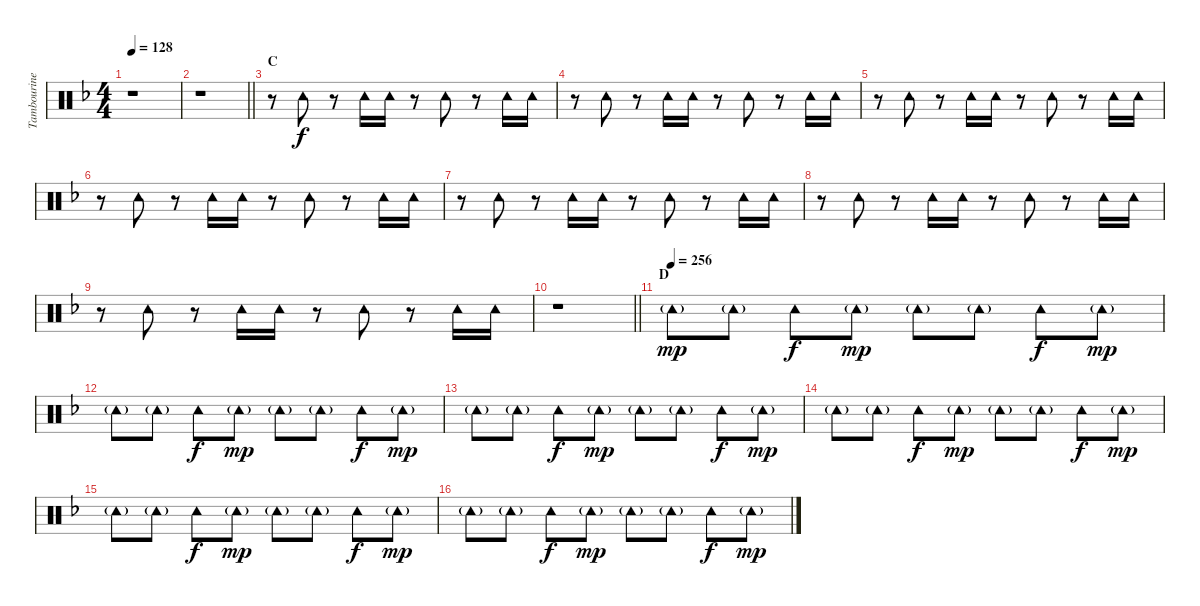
\track ("Tambourine" "Tambourine") {instrument percussion}
\staff {score}
\articulation defaults
\ts (4 4)
\tempo 128
\clef neutral
\ks f
r.1{dy f} |
\barLineRight lightlight
r.1 |
\section ("" "C")
r.8 "Tambourine (hit)".8 r.8 "Tambourine (hit)".16 "Tambourine (hit)".16 r.8 "Tambourine (hit)".8 r.8 "Tambourine (hit)".16 "Tambourine (hit)".16 |
r.8 "Tambourine (hit)".8 r.8 "Tambourine (hit)".16 "Tambourine (hit)".16 r.8 "Tambourine (hit)".8 r.8 "Tambourine (hit)".16 "Tambourine (hit)".16 |
r.8 "Tambourine (hit)".8 r.8 "Tambourine (hit)".16 "Tambourine (hit)".16 r.8 "Tambourine (hit)".8 r.8 "Tambourine (hit)".16 "Tambourine (hit)".16 |
r.8 "Tambourine (hit)".8 r.8 "Tambourine (hit)".16 "Tambourine (hit)".16 r.8 "Tambourine (hit)".8 r.8 "Tambourine (hit)".16 "Tambourine (hit)".16 |
r.8 "Tambourine (hit)".8 r.8 "Tambourine (hit)".16 "Tambourine (hit)".16 r.8 "Tambourine (hit)".8 r.8 "Tambourine (hit)".16 "Tambourine (hit)".16 |
r.8 "Tambourine (hit)".8 r.8 "Tambourine (hit)".16 "Tambourine (hit)".16 r.8 "Tambourine (hit)".8 r.8 "Tambourine (hit)".16 "Tambourine (hit)".16 |
r.8 "Tambourine (hit)".8 r.8 "Tambourine (hit)".16 "Tambourine (hit)".16 r.8 "Tambourine (hit)".8 r.8 "Tambourine (hit)".16 "Tambourine (hit)".16 |
\barLineRight lightlight
r.1 |
\section ("" "D")
\tempo (256)
"Tambourine (hit)"{g}.8{dy mp} "Tambourine (hit)"{g}.8 "Tambourine (hit)".8{dy f} "Tambourine (hit)"{g}.8{dy mp} "Tambourine (hit)"{g}.8 "Tambourine (hit)"{g}.8 "Tambourine (hit)".8{dy f} "Tambourine (hit)"{g}.8{dy mp} |
"Tambourine (hit)"{g}.8 "Tambourine (hit)"{g}.8 "Tambourine (hit)".8{dy f} "Tambourine (hit)"{g}.8{dy mp} "Tambourine (hit)"{g}.8 "Tambourine (hit)"{g}.8 "Tambourine (hit)".8{dy f} "Tambourine (hit)"{g}.8{dy mp} |
"Tambourine (hit)"{g}.8 "Tambourine (hit)"{g}.8 "Tambourine (hit)".8{dy f} "Tambourine (hit)"{g}.8{dy mp} "Tambourine (hit)"{g}.8 "Tambourine (hit)"{g}.8 "Tambourine (hit)".8{dy f} "Tambourine (hit)"{g}.8{dy mp} |
"Tambourine (hit)"{g}.8 "Tambourine (hit)"{g}.8 "Tambourine (hit)".8{dy f} "Tambourine (hit)"{g}.8{dy mp} "Tambourine (hit)"{g}.8 "Tambourine (hit)"{g}.8 "Tambourine (hit)".8{dy f} "Tambourine (hit)"{g}.8{dy mp} |
"Tambourine (hit)"{g}.8 "Tambourine (hit)"{g}.8 "Tambourine (hit)".8{dy f} "Tambourine (hit)"{g}.8{dy mp} "Tambourine (hit)"{g}.8 "Tambourine (hit)"{g}.8 "Tambourine (hit)".8{dy f} "Tambourine (hit)"{g}.8{dy mp} |
"Tambourine (hit)"{g}.8 "Tambourine (hit)"{g}.8 "Tambourine (hit)".8{dy f} "Tambourine (hit)"{g}.8{dy mp} "Tambourine (hit)"{g}.8 "Tambourine (hit)"{g}.8 "Tambourine (hit)".8{dy f} "Tambourine (hit)"{g}.8{dy mp}
